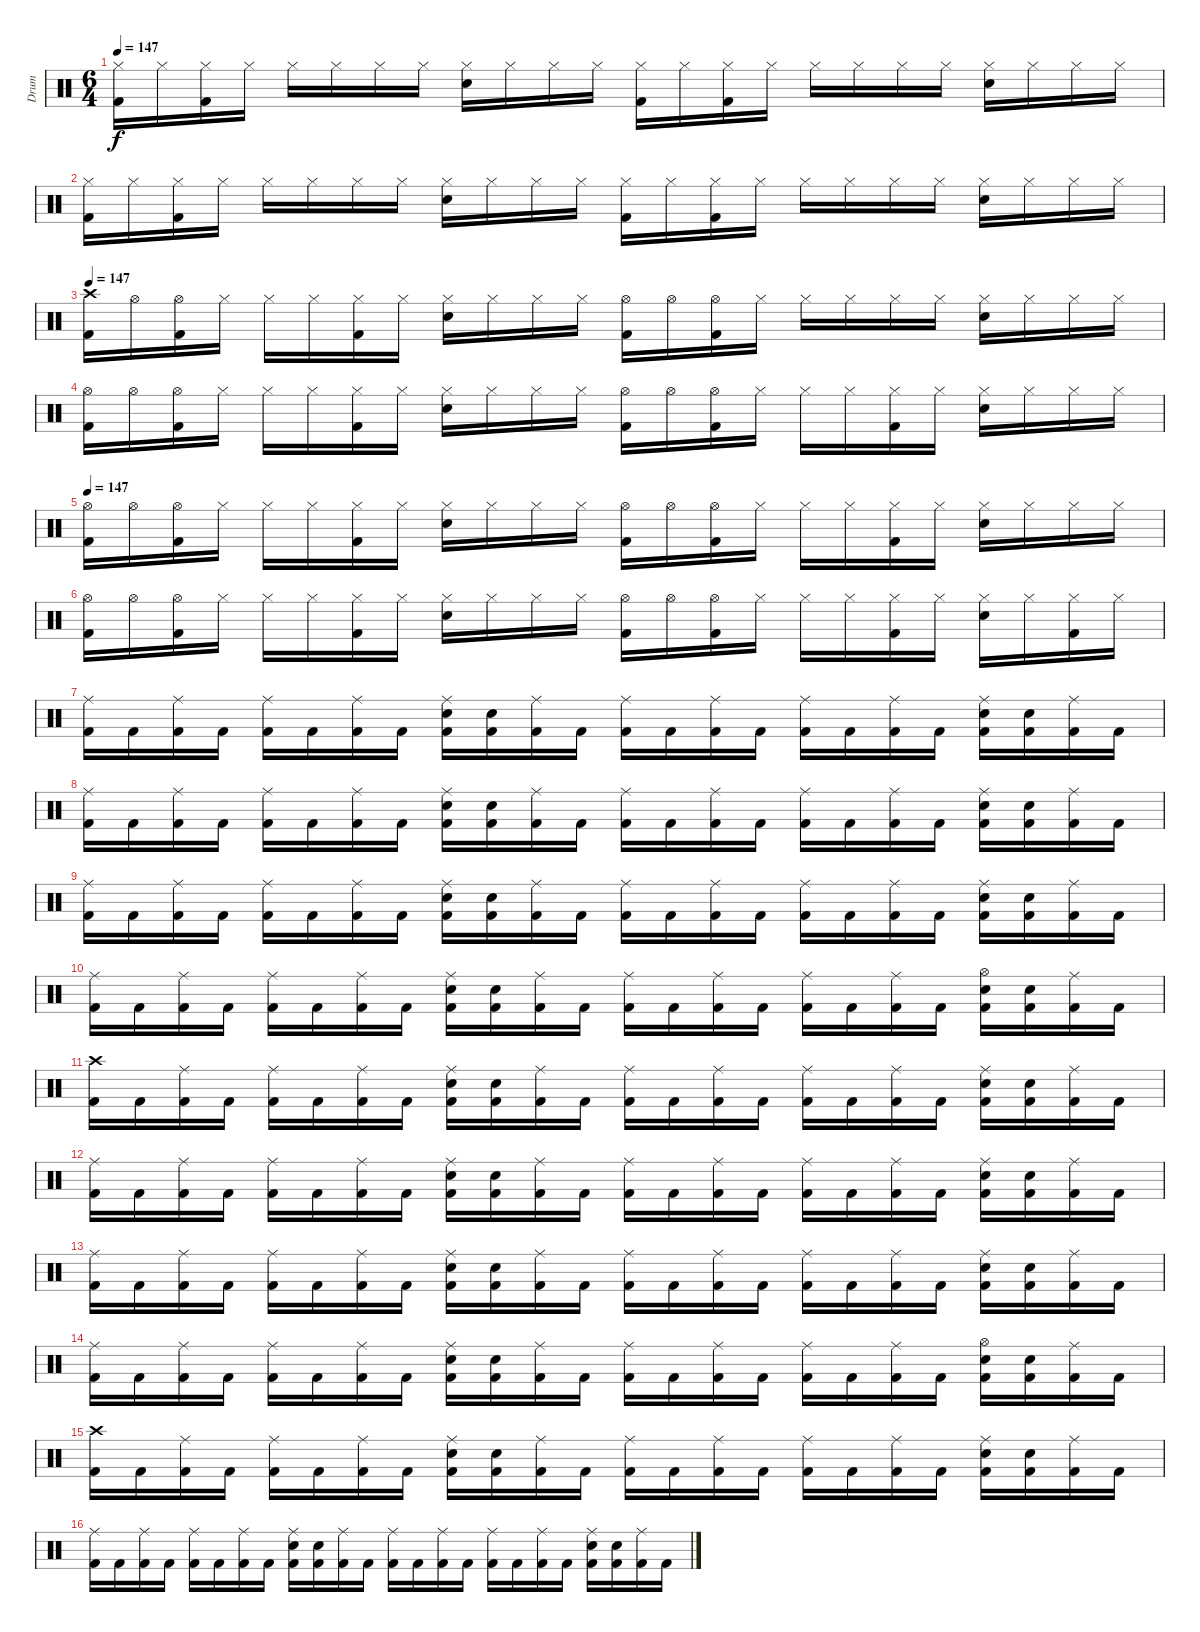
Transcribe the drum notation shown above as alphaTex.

\track ("Drum" "Drum") {instrument percussion}
\staff {score}
\articulation defaults
\ts (6 4)
\tempo 147
\clef neutral
\ks c
("Hi-Hat (closed)" "Kick (hit) 2").16{dy f} "Hi-Hat (closed)".16 ("Hi-Hat (closed)" "Kick (hit) 2").16 "Hi-Hat (closed)".16 "Hi-Hat (closed)".16 "Hi-Hat (closed)".16 "Hi-Hat (closed)".16 "Hi-Hat (closed)".16 ("Hi-Hat (closed)" "Snare (hit) 2").16 "Hi-Hat (closed)".16 "Hi-Hat (closed)".16 "Hi-Hat (closed)".16 ("Hi-Hat (closed)" "Kick (hit) 2").16 "Hi-Hat (closed)".16 ("Hi-Hat (closed)" "Kick (hit) 2").16 "Hi-Hat (closed)".16 "Hi-Hat (closed)".16 "Hi-Hat (closed)".16 "Hi-Hat (closed)".16 "Hi-Hat (closed)".16 ("Hi-Hat (closed)" "Snare (hit) 2").16 "Hi-Hat (closed)".16 "Hi-Hat (closed)".16 "Hi-Hat (closed)".16 |
("Hi-Hat (closed)" "Kick (hit) 2").16 "Hi-Hat (closed)".16 ("Hi-Hat (closed)" "Kick (hit) 2").16 "Hi-Hat (closed)".16 "Hi-Hat (closed)".16 "Hi-Hat (closed)".16 "Hi-Hat (closed)".16 "Hi-Hat (closed)".16 ("Hi-Hat (closed)" "Snare (hit) 2").16 "Hi-Hat (closed)".16 "Hi-Hat (closed)".16 "Hi-Hat (closed)".16 ("Hi-Hat (closed)" "Kick (hit) 2").16 "Hi-Hat (closed)".16 ("Hi-Hat (closed)" "Kick (hit) 2").16 "Hi-Hat (closed)".16 "Hi-Hat (closed)".16 "Hi-Hat (closed)".16 "Hi-Hat (closed)".16 "Hi-Hat (closed)".16 ("Hi-Hat (closed)" "Snare (hit) 2").16 "Hi-Hat (closed)".16 "Hi-Hat (closed)".16 "Hi-Hat (closed)".16 |
\tempo 147
("Crash high (hit)" "Kick (hit) 2").16 "Hi-Hat (open)".16 ("Hi-Hat (open)" "Kick (hit) 2").16 "Hi-Hat (closed)".16 "Hi-Hat (closed)".16 "Hi-Hat (closed)".16 ("Hi-Hat (closed)" "Kick (hit) 2").16 "Hi-Hat (closed)".16 ("Hi-Hat (closed)" "Snare (hit) 2").16 "Hi-Hat (closed)".16 "Hi-Hat (closed)".16 "Hi-Hat (closed)".16 ("Hi-Hat (open)" "Kick (hit) 2").16 "Hi-Hat (open)".16 ("Hi-Hat (open)" "Kick (hit) 2").16 "Hi-Hat (closed)".16 "Hi-Hat (closed)".16 "Hi-Hat (closed)".16 "Hi-Hat (closed)".16 "Hi-Hat (closed)".16 ("Hi-Hat (closed)" "Snare (hit) 2").16 "Hi-Hat (closed)".16 "Hi-Hat (closed)".16 "Hi-Hat (closed)".16 |
("Hi-Hat (open)" "Kick (hit) 2").16 "Hi-Hat (open)".16 ("Hi-Hat (open)" "Kick (hit) 2").16 "Hi-Hat (closed)".16 "Hi-Hat (closed)".16 "Hi-Hat (closed)".16 ("Hi-Hat (closed)" "Kick (hit) 2").16 "Hi-Hat (closed)".16 ("Hi-Hat (closed)" "Snare (hit) 2").16 "Hi-Hat (closed)".16 "Hi-Hat (closed)".16 "Hi-Hat (closed)".16 ("Hi-Hat (open)" "Kick (hit) 2").16 "Hi-Hat (open)".16 ("Hi-Hat (open)" "Kick (hit) 2").16 "Hi-Hat (closed)".16 "Hi-Hat (closed)".16 "Hi-Hat (closed)".16 ("Hi-Hat (closed)" "Kick (hit) 2").16 "Hi-Hat (closed)".16 ("Hi-Hat (closed)" "Snare (hit) 2").16 "Hi-Hat (closed)".16 "Hi-Hat (closed)".16 "Hi-Hat (closed)".16 |
\tempo 147
("Hi-Hat (open)" "Kick (hit) 2").16 "Hi-Hat (open)".16 ("Hi-Hat (open)" "Kick (hit) 2").16 "Hi-Hat (closed)".16 "Hi-Hat (closed)".16 "Hi-Hat (closed)".16 ("Hi-Hat (closed)" "Kick (hit) 2").16 "Hi-Hat (closed)".16 ("Hi-Hat (closed)" "Snare (hit) 2").16 "Hi-Hat (closed)".16 "Hi-Hat (closed)".16 "Hi-Hat (closed)".16 ("Hi-Hat (open)" "Kick (hit) 2").16 "Hi-Hat (open)".16 ("Hi-Hat (open)" "Kick (hit) 2").16 "Hi-Hat (closed)".16 "Hi-Hat (closed)".16 "Hi-Hat (closed)".16 ("Hi-Hat (closed)" "Kick (hit) 2").16 "Hi-Hat (closed)".16 ("Hi-Hat (closed)" "Snare (hit) 2").16 "Hi-Hat (closed)".16 "Hi-Hat (closed)".16 "Hi-Hat (closed)".16 |
("Hi-Hat (open)" "Kick (hit) 2").16 "Hi-Hat (open)".16 ("Hi-Hat (open)" "Kick (hit) 2").16 "Hi-Hat (closed)".16 "Hi-Hat (closed)".16 "Hi-Hat (closed)".16 ("Hi-Hat (closed)" "Kick (hit) 2").16 "Hi-Hat (closed)".16 ("Hi-Hat (closed)" "Snare (hit) 2").16 "Hi-Hat (closed)".16 "Hi-Hat (closed)".16 "Hi-Hat (closed)".16 ("Hi-Hat (open)" "Kick (hit) 2").16 "Hi-Hat (open)".16 ("Hi-Hat (open)" "Kick (hit) 2").16 "Hi-Hat (closed)".16 "Hi-Hat (closed)".16 "Hi-Hat (closed)".16 ("Hi-Hat (closed)" "Kick (hit) 2").16 "Hi-Hat (closed)".16 ("Hi-Hat (closed)" "Snare (hit) 2").16 "Hi-Hat (closed)".16 ("Hi-Hat (closed)" "Kick (hit) 2").16 "Hi-Hat (closed)".16 |
("Ride (middle)" "Kick (hit) 2").16 "Kick (hit) 2".16 ("Ride (middle)" "Kick (hit) 2").16 "Kick (hit) 2".16 ("Ride (middle)" "Kick (hit) 2").16 "Kick (hit) 2".16 ("Ride (middle)" "Kick (hit) 2").16 "Kick (hit) 2".16 ("Ride (middle)" "Snare (hit) 2" "Kick (hit) 2").16 ("Snare (hit) 2" "Kick (hit) 2").16 ("Ride (middle)" "Kick (hit) 2").16 "Kick (hit) 2".16 ("Ride (middle)" "Kick (hit) 2").16 "Kick (hit) 2".16 ("Ride (middle)" "Kick (hit) 2").16 "Kick (hit) 2".16 ("Ride (middle)" "Kick (hit) 2").16 "Kick (hit) 2".16 ("Ride (middle)" "Kick (hit) 2").16 "Kick (hit) 2".16 ("Ride (middle)" "Snare (hit) 2" "Kick (hit) 2").16 ("Snare (hit) 2" "Kick (hit) 2").16 ("Ride (middle)" "Kick (hit) 2").16 "Kick (hit) 2".16 |
("Ride (middle)" "Kick (hit) 2").16 "Kick (hit) 2".16 ("Ride (middle)" "Kick (hit) 2").16 "Kick (hit) 2".16 ("Ride (middle)" "Kick (hit) 2").16 "Kick (hit) 2".16 ("Ride (middle)" "Kick (hit) 2").16 "Kick (hit) 2".16 ("Ride (middle)" "Snare (hit) 2" "Kick (hit) 2").16 ("Snare (hit) 2" "Kick (hit) 2").16 ("Ride (middle)" "Kick (hit) 2").16 "Kick (hit) 2".16 ("Ride (middle)" "Kick (hit) 2").16 "Kick (hit) 2".16 ("Ride (middle)" "Kick (hit) 2").16 "Kick (hit) 2".16 ("Ride (middle)" "Kick (hit) 2").16 "Kick (hit) 2".16 ("Ride (middle)" "Kick (hit) 2").16 "Kick (hit) 2".16 ("Ride (middle)" "Snare (hit) 2" "Kick (hit) 2").16 ("Snare (hit) 2" "Kick (hit) 2").16 ("Ride (middle)" "Kick (hit) 2").16 "Kick (hit) 2".16 |
("Ride (middle)" "Kick (hit) 2").16 "Kick (hit) 2".16 ("Ride (middle)" "Kick (hit) 2").16 "Kick (hit) 2".16 ("Ride (middle)" "Kick (hit) 2").16 "Kick (hit) 2".16 ("Ride (middle)" "Kick (hit) 2").16 "Kick (hit) 2".16 ("Ride (middle)" "Snare (hit) 2" "Kick (hit) 2").16 ("Snare (hit) 2" "Kick (hit) 2").16 ("Ride (middle)" "Kick (hit) 2").16 "Kick (hit) 2".16 ("Ride (middle)" "Kick (hit) 2").16 "Kick (hit) 2".16 ("Ride (middle)" "Kick (hit) 2").16 "Kick (hit) 2".16 ("Ride (middle)" "Kick (hit) 2").16 "Kick (hit) 2".16 ("Ride (middle)" "Kick (hit) 2").16 "Kick (hit) 2".16 ("Ride (middle)" "Snare (hit) 2" "Kick (hit) 2").16 ("Snare (hit) 2" "Kick (hit) 2").16 ("Ride (middle)" "Kick (hit) 2").16 "Kick (hit) 2".16 |
("Ride (middle)" "Kick (hit) 2").16 "Kick (hit) 2".16 ("Ride (middle)" "Kick (hit) 2").16 "Kick (hit) 2".16 ("Ride (middle)" "Kick (hit) 2").16 "Kick (hit) 2".16 ("Ride (middle)" "Kick (hit) 2").16 "Kick (hit) 2".16 ("Ride (middle)" "Snare (hit) 2" "Kick (hit) 2").16 ("Snare (hit) 2" "Kick (hit) 2").16 ("Ride (middle)" "Kick (hit) 2").16 "Kick (hit) 2".16 ("Ride (middle)" "Kick (hit) 2").16 "Kick (hit) 2".16 ("Ride (middle)" "Kick (hit) 2").16 "Kick (hit) 2".16 ("Ride (middle)" "Kick (hit) 2").16 "Kick (hit) 2".16 ("Ride (middle)" "Kick (hit) 2").16 "Kick (hit) 2".16 ("Hi-Hat (open)" "Snare (hit) 2" "Kick (hit) 2").16 ("Snare (hit) 2" "Kick (hit) 2").16 ("Ride (middle)" "Kick (hit) 2").16 "Kick (hit) 2".16 |
("Crash high (hit)" "Kick (hit) 2").16 "Kick (hit) 2".16 ("Ride (middle)" "Kick (hit) 2").16 "Kick (hit) 2".16 ("Ride (middle)" "Kick (hit) 2").16 "Kick (hit) 2".16 ("Ride (middle)" "Kick (hit) 2").16 "Kick (hit) 2".16 ("Ride (middle)" "Snare (hit) 2" "Kick (hit) 2").16 ("Snare (hit) 2" "Kick (hit) 2").16 ("Ride (middle)" "Kick (hit) 2").16 "Kick (hit) 2".16 ("Ride (middle)" "Kick (hit) 2").16 "Kick (hit) 2".16 ("Ride (middle)" "Kick (hit) 2").16 "Kick (hit) 2".16 ("Ride (middle)" "Kick (hit) 2").16 "Kick (hit) 2".16 ("Ride (middle)" "Kick (hit) 2").16 "Kick (hit) 2".16 ("Ride (middle)" "Snare (hit) 2" "Kick (hit) 2").16 ("Snare (hit) 2" "Kick (hit) 2").16 ("Ride (middle)" "Kick (hit) 2").16 "Kick (hit) 2".16 |
("Ride (middle)" "Kick (hit) 2").16 "Kick (hit) 2".16 ("Ride (middle)" "Kick (hit) 2").16 "Kick (hit) 2".16 ("Ride (middle)" "Kick (hit) 2").16 "Kick (hit) 2".16 ("Ride (middle)" "Kick (hit) 2").16 "Kick (hit) 2".16 ("Ride (middle)" "Snare (hit) 2" "Kick (hit) 2").16 ("Snare (hit) 2" "Kick (hit) 2").16 ("Ride (middle)" "Kick (hit) 2").16 "Kick (hit) 2".16 ("Ride (middle)" "Kick (hit) 2").16 "Kick (hit) 2".16 ("Ride (middle)" "Kick (hit) 2").16 "Kick (hit) 2".16 ("Ride (middle)" "Kick (hit) 2").16 "Kick (hit) 2".16 ("Ride (middle)" "Kick (hit) 2").16 "Kick (hit) 2".16 ("Ride (middle)" "Snare (hit) 2" "Kick (hit) 2").16 ("Snare (hit) 2" "Kick (hit) 2").16 ("Ride (middle)" "Kick (hit) 2").16 "Kick (hit) 2".16 |
("Ride (middle)" "Kick (hit) 2").16 "Kick (hit) 2".16 ("Ride (middle)" "Kick (hit) 2").16 "Kick (hit) 2".16 ("Ride (middle)" "Kick (hit) 2").16 "Kick (hit) 2".16 ("Ride (middle)" "Kick (hit) 2").16 "Kick (hit) 2".16 ("Ride (middle)" "Snare (hit) 2" "Kick (hit) 2").16 ("Snare (hit) 2" "Kick (hit) 2").16 ("Ride (middle)" "Kick (hit) 2").16 "Kick (hit) 2".16 ("Ride (middle)" "Kick (hit) 2").16 "Kick (hit) 2".16 ("Ride (middle)" "Kick (hit) 2").16 "Kick (hit) 2".16 ("Ride (middle)" "Kick (hit) 2").16 "Kick (hit) 2".16 ("Ride (middle)" "Kick (hit) 2").16 "Kick (hit) 2".16 ("Ride (middle)" "Snare (hit) 2" "Kick (hit) 2").16 ("Snare (hit) 2" "Kick (hit) 2").16 ("Ride (middle)" "Kick (hit) 2").16 "Kick (hit) 2".16 |
("Ride (middle)" "Kick (hit) 2").16 "Kick (hit) 2".16 ("Ride (middle)" "Kick (hit) 2").16 "Kick (hit) 2".16 ("Ride (middle)" "Kick (hit) 2").16 "Kick (hit) 2".16 ("Ride (middle)" "Kick (hit) 2").16 "Kick (hit) 2".16 ("Ride (middle)" "Snare (hit) 2" "Kick (hit) 2").16 ("Snare (hit) 2" "Kick (hit) 2").16 ("Ride (middle)" "Kick (hit) 2").16 "Kick (hit) 2".16 ("Ride (middle)" "Kick (hit) 2").16 "Kick (hit) 2".16 ("Ride (middle)" "Kick (hit) 2").16 "Kick (hit) 2".16 ("Ride (middle)" "Kick (hit) 2").16 "Kick (hit) 2".16 ("Ride (middle)" "Kick (hit) 2").16 "Kick (hit) 2".16 ("Hi-Hat (open)" "Snare (hit) 2" "Kick (hit) 2").16 ("Snare (hit) 2" "Kick (hit) 2").16 ("Ride (middle)" "Kick (hit) 2").16 "Kick (hit) 2".16 |
("Crash high (hit)" "Kick (hit) 2").16 "Kick (hit) 2".16 ("Ride (middle)" "Kick (hit) 2").16 "Kick (hit) 2".16 ("Ride (middle)" "Kick (hit) 2").16 "Kick (hit) 2".16 ("Ride (middle)" "Kick (hit) 2").16 "Kick (hit) 2".16 ("Ride (middle)" "Snare (hit) 2" "Kick (hit) 2").16 ("Snare (hit) 2" "Kick (hit) 2").16 ("Ride (middle)" "Kick (hit) 2").16 "Kick (hit) 2".16 ("Ride (middle)" "Kick (hit) 2").16 "Kick (hit) 2".16 ("Ride (middle)" "Kick (hit) 2").16 "Kick (hit) 2".16 ("Ride (middle)" "Kick (hit) 2").16 "Kick (hit) 2".16 ("Ride (middle)" "Kick (hit) 2").16 "Kick (hit) 2".16 ("Ride (middle)" "Snare (hit) 2" "Kick (hit) 2").16 ("Snare (hit) 2" "Kick (hit) 2").16 ("Ride (middle)" "Kick (hit) 2").16 "Kick (hit) 2".16 |
("Ride (middle)" "Kick (hit) 2").16 "Kick (hit) 2".16 ("Ride (middle)" "Kick (hit) 2").16 "Kick (hit) 2".16 ("Ride (middle)" "Kick (hit) 2").16 "Kick (hit) 2".16 ("Ride (middle)" "Kick (hit) 2").16 "Kick (hit) 2".16 ("Ride (middle)" "Snare (hit) 2" "Kick (hit) 2").16 ("Snare (hit) 2" "Kick (hit) 2").16 ("Ride (middle)" "Kick (hit) 2").16 "Kick (hit) 2".16 ("Ride (middle)" "Kick (hit) 2").16 "Kick (hit) 2".16 ("Ride (middle)" "Kick (hit) 2").16 "Kick (hit) 2".16 ("Ride (middle)" "Kick (hit) 2").16 "Kick (hit) 2".16 ("Ride (middle)" "Kick (hit) 2").16 "Kick (hit) 2".16 ("Ride (middle)" "Snare (hit) 2" "Kick (hit) 2").16 ("Snare (hit) 2" "Kick (hit) 2").16 ("Ride (middle)" "Kick (hit) 2").16 "Kick (hit) 2".16
